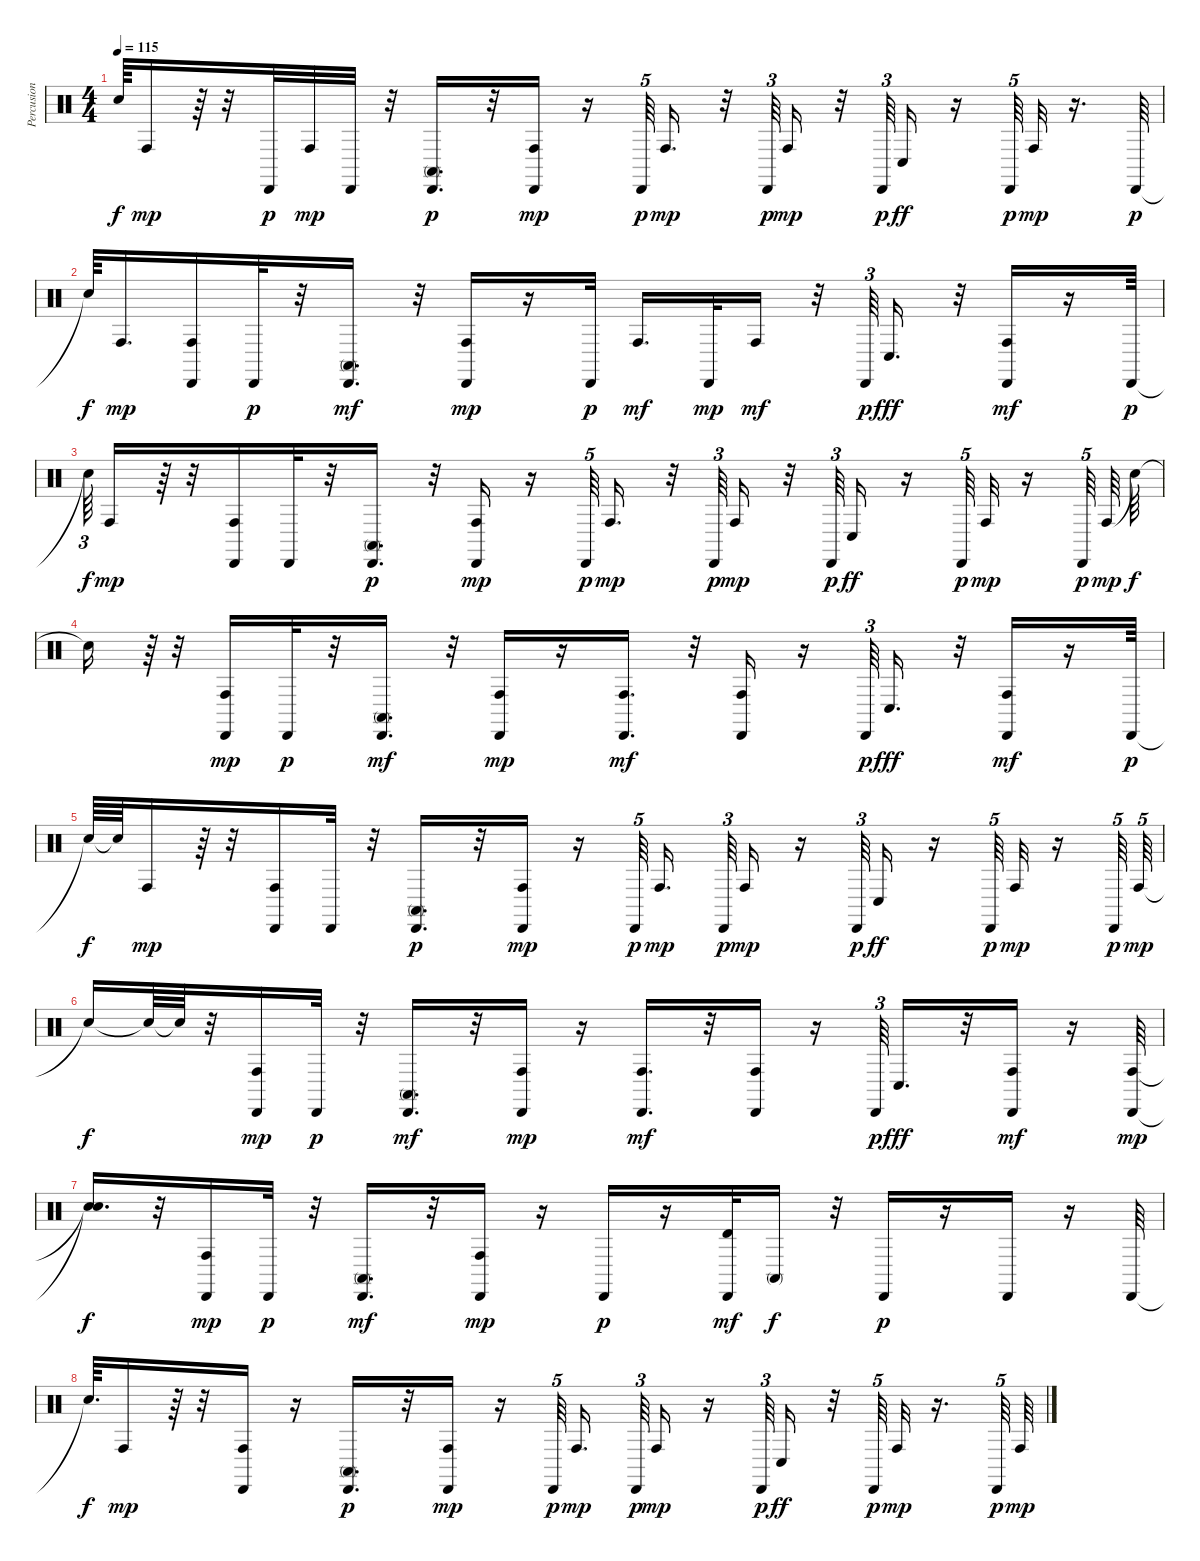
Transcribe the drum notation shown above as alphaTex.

\track ("Percusion" "Percusion") {instrument percussion}
\staff {score}
\articulation defaults
\ts (4 4)
\tempo 115
\clef neutral
\ks c "Snare (hit)"{t}.64{dy f} "Conga high (hit)".16{dy mp}
r.64 r.32 "Cabasa (hit)".32{dy p} "Conga high (hit)".32{dy mp} "Cabasa (hit)".32 r.32 ("Cabasa (hit)" "Conga high (mute)").16{d dy p} r.32 ("Cabasa (hit)" "Conga high (hit)").16{dy mp} r.16 "Cabasa (hit)".64{tu (5 4) dy p} "Conga high (hit)".16{d dy mp} r.32 "Cabasa (hit)".64{tu (3 2) dy p} "Conga high (hit)".16{dy mp} r.32 "Cabasa (hit)".64{tu (3 2) dy p} "Conga low (hit)".16{dy ff} r.16 "Cabasa (hit)".64{tu (5 4) dy p} "Conga high (hit)".32{dy mp} r.16{d} "Cabasa (hit)".64{dy p} |
"Snare (hit)"{t}.64{dy f} "Conga high (hit)".16{d dy mp} ("Cabasa (hit)" "Conga high (hit)").16 "Cabasa (hit)".32{dy p} r.32 ("Cabasa (hit)" "Conga high (mute)").16{d dy mf} r.32 ("Cabasa (hit)" "Conga high (hit)").16{dy mp} r.16 "Cabasa (hit)".32{dy p} "Conga high (hit)".16{d dy mf} "Cabasa (hit)".32{dy mp} "Conga high (hit)".16{dy mf} r.32 "Cabasa (hit)".64{tu (3 2) dy p} "Conga low (hit)".16{d dy fff} r.32 ("Cabasa (hit)" "Conga high (hit)").16{dy mf} r.16 "Cabasa (hit)".64{dy p} |
"Snare (hit)"{t}.64{tu (3 2) dy f} "Conga high (hit)".16{dy mp} r.64 r.32 ("Cabasa (hit)" "Conga high (hit)").16 "Cabasa (hit)".32 r.32 ("Cabasa (hit)" "Conga high (mute)").16{d dy p} r.32 ("Cabasa (hit)" "Conga high (hit)").16{dy mp} r.16 "Cabasa (hit)".64{tu (5 4) dy p} "Conga high (hit)".16{d dy mp} r.32 "Cabasa (hit)".64{tu (3 2) dy p} "Conga high (hit)".16{dy mp} r.32 "Cabasa (hit)".64{tu (3 2) dy p} "Conga low (hit)".16{dy ff} r.16 "Cabasa (hit)".64{tu (5 4) dy p} "Conga high (hit)".32{dy mp} r.16 "Cabasa (hit)".64{tu (5 4) dy p} "Conga high (hit)".64{dy mp} "Snare (hit)"{t}.64{dy f} |
"Snare (hit)"{t}.16 r.64{tu (5 4)} r.32 ("Cabasa (hit)" "Conga high (hit)").16{dy mp} "Cabasa (hit)".32{dy p} r.32 ("Cabasa (hit)" "Conga high (mute)").16{d dy mf} r.32 ("Cabasa (hit)" "Conga high (hit)").16{dy mp} r.16 ("Cabasa (hit)" "Conga high (hit)").16{d dy mf} r.32 ("Cabasa (hit)" "Conga high (hit)").16 r.16 "Cabasa (hit)".64{tu (3 2) dy p} "Conga low (hit)".16{d dy fff} r.32 ("Cabasa (hit)" "Conga high (hit)").16{dy mf} r.16 "Cabasa (hit)".64{dy p} |
"Snare (hit)"{t}.64{dy f} "Snare (hit)"{t}.64 "Conga high (hit)".16{dy mp} r.64 r.32 ("Cabasa (hit)" "Conga high (hit)").16 "Cabasa (hit)".32 r.32 ("Cabasa (hit)" "Conga high (mute)").16{d dy p} r.32 ("Cabasa (hit)" "Conga high (hit)").16{dy mp} r.16 "Cabasa (hit)".64{tu (5 4) dy p beam splitsecondary} "Conga high (hit)".16{d dy mp beam splitsecondary} "Cabasa (hit)".64{tu (3 2) dy p} "Conga high (hit)".16{dy mp} r.16 "Cabasa (hit)".64{tu (3 2) dy p} "Conga low (hit)".16{dy ff} r.16 "Cabasa (hit)".64{tu (5 4) dy p} "Conga high (hit)".32{dy mp} r.16 "Cabasa (hit)".64{tu (5 4) dy p} "Conga high (hit)".64{tu (5 4) dy mp} |
"Snare (hit)"{t}.16{dy f} "Snare (hit)"{t}.64 "Snare (hit)"{t}.64 r.32 ("Cabasa (hit)" "Conga high (hit)").16{dy mp} "Cabasa (hit)".32{dy p} r.32 ("Cabasa (hit)" "Conga high (mute)").16{d dy mf} r.32 ("Cabasa (hit)" "Conga high (hit)").16{dy mp} r.16 ("Cabasa (hit)" "Conga high (hit)").16{d dy mf} r.32 ("Cabasa (hit)" "Conga high (hit)").16 r.16 "Cabasa (hit)".64{tu (3 2) dy p} "Conga low (hit)".16{d dy fff} r.32 ("Cabasa (hit)" "Conga high (hit)").16{dy mf} r.16 ("Cabasa (hit)" "Conga high (hit)").64{dy mp} |
("Snare (hit)"{t} "Snare (hit)"{t}).16{d dy f} r.32 ("Cabasa (hit)" "Conga high (hit)").16{dy mp} "Cabasa (hit)".32{dy p} r.32 ("Cabasa (hit)" "Conga high (mute)").16{d dy mf} r.32 ("Cabasa (hit)" "Conga high (hit)").16{dy mp} r.16 "Cabasa (hit)".16{dy p} r.16 ("Cabasa (hit)" "Timbale high (hit)").32{dy mf} "Conga high (mute)".16{dy f} r.32 "Cabasa (hit)".16{dy p} r.16 "Cabasa (hit)".16 r.16 "Cabasa (hit)".64 |
"Snare (hit)"{t}.64{d dy f} "Conga high (hit)".16{dy mp} r.64 r.32 ("Cabasa (hit)" "Conga high (hit)").16 r.16 ("Cabasa (hit)" "Conga high (mute)").16{d dy p} r.32 ("Cabasa (hit)" "Conga high (hit)").16{dy mp} r.16 "Cabasa (hit)".64{tu (5 4) dy p beam splitsecondary} "Conga high (hit)".16{d dy mp beam splitsecondary} "Cabasa (hit)".64{tu (3 2) dy p} "Conga high (hit)".16{dy mp} r.16 "Cabasa (hit)".64{tu (3 2) dy p} "Conga low (hit)".16{dy ff} r.32 "Cabasa (hit)".64{tu (5 4) dy p} "Conga high (hit)".32{dy mp} r.16{d} "Cabasa (hit)".64{tu (5 4) dy p} "Conga high (hit)".64{dy mp}
